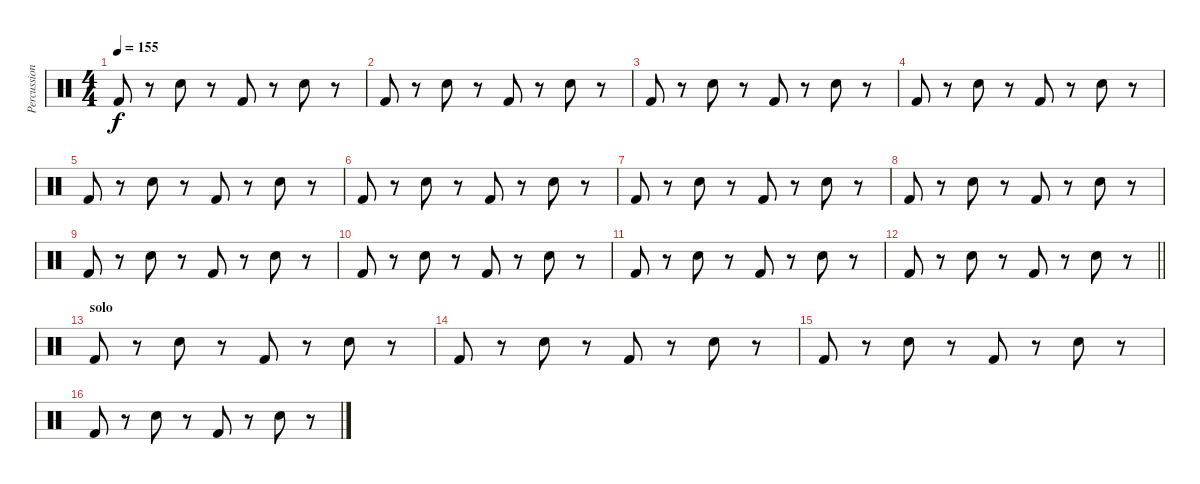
\track ("Percussions" "Percussion") {instrument percussion}
\staff {score}
\articulation defaults
\ts (4 4)
\tempo 155
\clef neutral
\ks c "Kick (hit) 2".8{dy f}
r.8 "Snare (hit) 2".8 r.8 "Kick (hit) 2".8 r.8 "Snare (hit) 2".8 r.8 |
"Kick (hit) 2".8 r.8 "Snare (hit) 2".8 r.8 "Kick (hit) 2".8 r.8 "Snare (hit) 2".8 r.8 |
"Kick (hit) 2".8 r.8 "Snare (hit) 2".8 r.8 "Kick (hit) 2".8 r.8 "Snare (hit) 2".8 r.8 |
"Kick (hit) 2".8 r.8 "Snare (hit) 2".8 r.8 "Kick (hit) 2".8 r.8 "Snare (hit) 2".8 r.8 |
"Kick (hit) 2".8 r.8 "Snare (hit) 2".8 r.8 "Kick (hit) 2".8 r.8 "Snare (hit) 2".8 r.8 |
"Kick (hit) 2".8 r.8 "Snare (hit) 2".8 r.8 "Kick (hit) 2".8 r.8 "Snare (hit) 2".8 r.8 |
"Kick (hit) 2".8 r.8 "Snare (hit) 2".8 r.8 "Kick (hit) 2".8 r.8 "Snare (hit) 2".8 r.8 |
"Kick (hit) 2".8 r.8 "Snare (hit) 2".8 r.8 "Kick (hit) 2".8 r.8 "Snare (hit) 2".8 r.8 |
"Kick (hit) 2".8 r.8 "Snare (hit) 2".8 r.8 "Kick (hit) 2".8 r.8 "Snare (hit) 2".8 r.8 |
"Kick (hit) 2".8 r.8 "Snare (hit) 2".8 r.8 "Kick (hit) 2".8 r.8 "Snare (hit) 2".8 r.8 |
"Kick (hit) 2".8 r.8 "Snare (hit) 2".8 r.8 "Kick (hit) 2".8 r.8 "Snare (hit) 2".8 r.8 |
\barLineRight lightlight "Kick (hit) 2".8
r.8 "Snare (hit) 2".8 r.8 "Kick (hit) 2".8 r.8 "Snare (hit) 2".8 r.8 |
\section ("" "solo")
"Kick (hit) 2".8 r.8 "Snare (hit) 2".8 r.8 "Kick (hit) 2".8 r.8 "Snare (hit) 2".8 r.8 |
"Kick (hit) 2".8 r.8 "Snare (hit) 2".8 r.8 "Kick (hit) 2".8 r.8 "Snare (hit) 2".8 r.8 |
"Kick (hit) 2".8 r.8 "Snare (hit) 2".8 r.8 "Kick (hit) 2".8 r.8 "Snare (hit) 2".8 r.8 |
"Kick (hit) 2".8 r.8 "Snare (hit) 2".8 r.8 "Kick (hit) 2".8 r.8 "Snare (hit) 2".8 r.8
